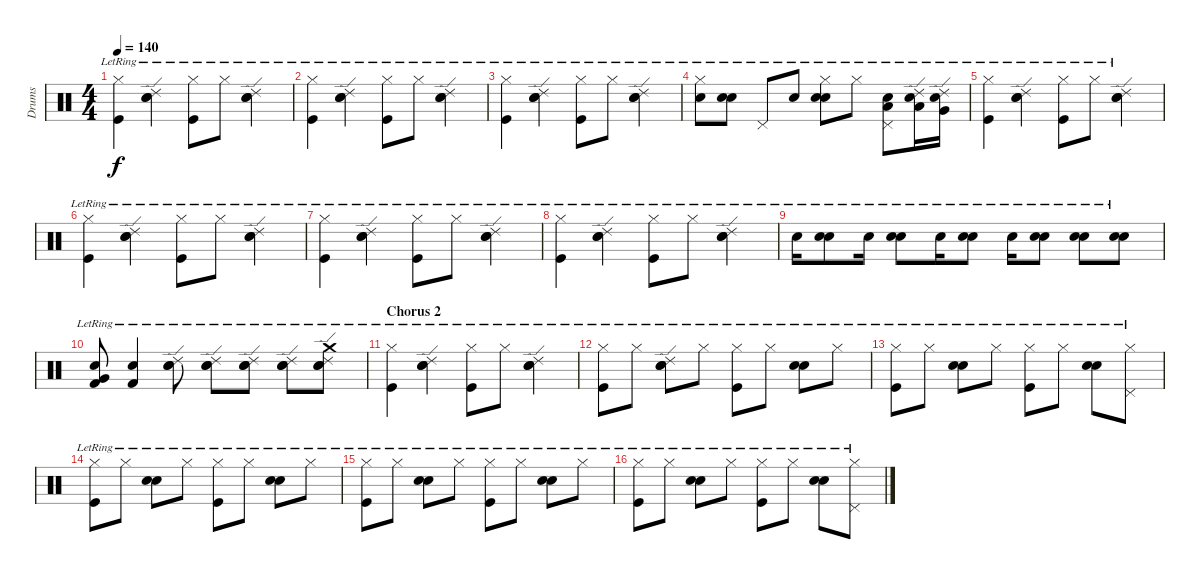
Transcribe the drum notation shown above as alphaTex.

\track ("Drums" "Drums") {instrument percussion}
\staff {score}
\articulation defaults
\ts (4 4)
\tempo 140
\clef neutral
\ks c
("Hi-Hat (closed)"{lr} "Kick (hit)"{lr}).4{dy f} ("Electric Snare (hit)"{lr} "Ride (edge) 2"{lr} "Snare (hit) 2"{lr}).4 ("Hi-Hat (closed)"{lr} "Kick (hit)"{lr}).8 "Hi-Hat (closed)"{lr}.8 ("Electric Snare (hit)"{lr} "Ride (edge) 2"{lr} "Snare (hit) 2"{lr}).4 |
("Hi-Hat (closed)"{lr} "Kick (hit)"{lr}).4 ("Electric Snare (hit)"{lr} "Ride (edge) 2"{lr} "Snare (hit) 2"{lr}).4 ("Hi-Hat (closed)"{lr} "Kick (hit)"{lr}).8 "Hi-Hat (closed)"{lr}.8 ("Electric Snare (hit)"{lr} "Ride (edge) 2"{lr} "Snare (hit) 2"{lr}).4 |
("Hi-Hat (closed)"{lr} "Kick (hit)"{lr}).4 ("Electric Snare (hit)"{lr} "Ride (edge) 2"{lr} "Snare (hit) 2"{lr}).4 ("Hi-Hat (closed)"{lr} "Kick (hit)"{lr}).8 "Hi-Hat (closed)"{lr}.8 ("Electric Snare (hit)"{lr} "Ride (edge) 2"{lr} "Snare (hit) 2"{lr}).4 |
("Hi-Hat (closed)"{lr} "Snare (hit) 2"{lr}).8 ("Snare (hit) 2"{lr} "Electric Snare (hit)"{lr}).8 "Pedal Hi-Hat (hit)"{lr}.8 "Snare (hit) 2"{lr}.8 ("Hi-Hat (closed)"{lr} "Snare (hit) 2"{lr} "Electric Snare (hit)"{lr}).8 "Hi-Hat (closed)"{lr}.8 ("Pedal Hi-Hat (hit)"{lr} "Snare (hit) 2"{lr} "Low Tom (hit)"{lr}).8 ("Ride (edge) 2"{lr} "Snare (hit) 2"{lr} "Low Tom (hit)"{lr}).16 ("Ride (edge) 2"{lr} "Snare (hit) 2"{lr} "Very Low Tom (hit)"{lr}).16 |
("Hi-Hat (closed)"{lr} "Kick (hit)"{lr}).4 ("Electric Snare (hit)"{lr} "Ride (edge) 2"{lr} "Snare (hit) 2"{lr}).4 ("Hi-Hat (closed)"{lr} "Kick (hit)"{lr}).8 "Hi-Hat (closed)"{lr}.8 ("Electric Snare (hit)"{lr} "Ride (edge) 2"{lr} "Snare (hit) 2"{lr}).4 |
("Hi-Hat (closed)"{lr} "Kick (hit)"{lr}).4 ("Electric Snare (hit)"{lr} "Ride (edge) 2"{lr} "Snare (hit) 2"{lr}).4 ("Hi-Hat (closed)"{lr} "Kick (hit)"{lr}).8 "Hi-Hat (closed)"{lr}.8 ("Electric Snare (hit)"{lr} "Ride (edge) 2"{lr} "Snare (hit) 2"{lr}).4 |
("Hi-Hat (closed)"{lr} "Kick (hit)"{lr}).4 ("Electric Snare (hit)"{lr} "Ride (edge) 2"{lr} "Snare (hit) 2"{lr}).4 ("Hi-Hat (closed)"{lr} "Kick (hit)"{lr}).8 "Hi-Hat (closed)"{lr}.8 ("Electric Snare (hit)"{lr} "Ride (edge) 2"{lr} "Snare (hit) 2"{lr}).4 |
("Hi-Hat (closed)"{lr} "Kick (hit)"{lr}).4 ("Electric Snare (hit)"{lr} "Ride (edge) 2"{lr} "Snare (hit) 2"{lr}).4 ("Hi-Hat (closed)"{lr} "Kick (hit)"{lr}).8 "Hi-Hat (closed)"{lr}.8 ("Electric Snare (hit)"{lr} "Ride (edge) 2"{lr} "Snare (hit) 2"{lr}).4 |
"Snare (hit) 2"{lr}.16 ("Snare (hit) 2"{lr} "Electric Snare (hit)"{lr}).8 "Snare (hit) 2"{lr}.16 ("Snare (hit) 2"{lr} "Electric Snare (hit)"{lr}).8 "Snare (hit) 2"{lr}.16 ("Snare (hit) 2"{lr} "Electric Snare (hit)"{lr}).8 "Snare (hit) 2"{lr}.16 ("Snare (hit) 2"{lr} "Electric Snare (hit)"{lr}).8 ("Snare (hit) 2"{lr} "Electric Snare (hit)"{lr}).8 ("Snare (hit) 2"{lr} "Electric Snare (hit)"{lr}).8 |
("Kick (hit) 2"{lr} "Very Low Tom (hit)"{lr} "Electric Snare (hit)"{lr}).8 ("Kick (hit) 2"{lr} "Electric Snare (hit)"{lr}).4 ("Snare (hit) 2"{lr} "Electric Snare (hit)"{lr} "Ride (edge) 2"{lr}).8 ("Snare (hit) 2"{lr} "Electric Snare (hit)"{lr} "Ride (edge) 2"{lr}).8 ("Snare (hit) 2"{lr} "Electric Snare (hit)"{lr} "Ride (edge) 2"{lr}).8 ("Snare (hit) 2"{lr} "Electric Snare (hit)"{lr} "Ride (edge) 2"{lr}).8 ("Snare (hit) 2"{lr} "Electric Snare (hit)"{lr} "Ride (edge) 2"{lr} "Crash medium (hit)"{lr}).8 |
\section ("" "Chorus 2")
("Hi-Hat (closed)"{lr} "Kick (hit)"{lr}).4 ("Electric Snare (hit)"{lr} "Ride (edge) 2"{lr} "Snare (hit) 2"{lr}).4 ("Hi-Hat (closed)"{lr} "Kick (hit)"{lr}).8 "Hi-Hat (closed)"{lr}.8 ("Electric Snare (hit)"{lr} "Ride (edge) 2"{lr} "Snare (hit) 2"{lr}).4 |
("Hi-Hat (closed)"{lr} "Kick (hit)"{lr}).8 "Hi-Hat (closed)"{lr}.8 ("Electric Snare (hit)"{lr} "Ride (edge) 2"{lr} "Snare (hit) 2"{lr}).8 "Hi-Hat (closed)"{lr}.8 ("Hi-Hat (closed)"{lr} "Kick (hit)"{lr}).8 "Hi-Hat (closed)"{lr}.8 ("Electric Snare (hit)"{lr} "Snare (hit) 2"{lr}).8 "Hi-Hat (closed)"{lr}.8 |
("Hi-Hat (closed)"{lr} "Kick (hit)"{lr}).8 "Hi-Hat (closed)"{lr}.8 ("Electric Snare (hit)"{lr} "Snare (hit) 2"{lr}).8 "Hi-Hat (closed)"{lr}.8 ("Hi-Hat (closed)"{lr} "Kick (hit)"{lr}).8 "Hi-Hat (closed)"{lr}.8 ("Electric Snare (hit)"{lr} "Snare (hit) 2"{lr}).8 ("Hi-Hat (closed)"{lr} "Pedal Hi-Hat (hit)"{lr}).8 |
("Hi-Hat (closed)"{lr} "Kick (hit)"{lr}).8 "Hi-Hat (closed)"{lr}.8 ("Electric Snare (hit)"{lr} "Snare (hit) 2"{lr}).8 "Hi-Hat (closed)"{lr}.8 ("Hi-Hat (closed)"{lr} "Kick (hit)"{lr}).8 "Hi-Hat (closed)"{lr}.8 ("Electric Snare (hit)"{lr} "Snare (hit) 2"{lr}).8 "Hi-Hat (closed)"{lr}.8 |
("Hi-Hat (closed)"{lr} "Kick (hit)"{lr}).8 "Hi-Hat (closed)"{lr}.8 ("Electric Snare (hit)"{lr} "Snare (hit) 2"{lr}).8 "Hi-Hat (closed)"{lr}.8 ("Hi-Hat (closed)"{lr} "Kick (hit)"{lr}).8 "Hi-Hat (closed)"{lr}.8 ("Electric Snare (hit)"{lr} "Snare (hit) 2"{lr}).8 "Hi-Hat (closed)"{lr}.8 |
("Hi-Hat (closed)"{lr} "Kick (hit)"{lr}).8 "Hi-Hat (closed)"{lr}.8 ("Electric Snare (hit)"{lr} "Snare (hit) 2"{lr}).8 "Hi-Hat (closed)"{lr}.8 ("Hi-Hat (closed)"{lr} "Kick (hit)"{lr}).8 "Hi-Hat (closed)"{lr}.8 ("Electric Snare (hit)"{lr} "Snare (hit) 2"{lr}).8 ("Hi-Hat (closed)"{lr} "Pedal Hi-Hat (hit)"{lr}).8
